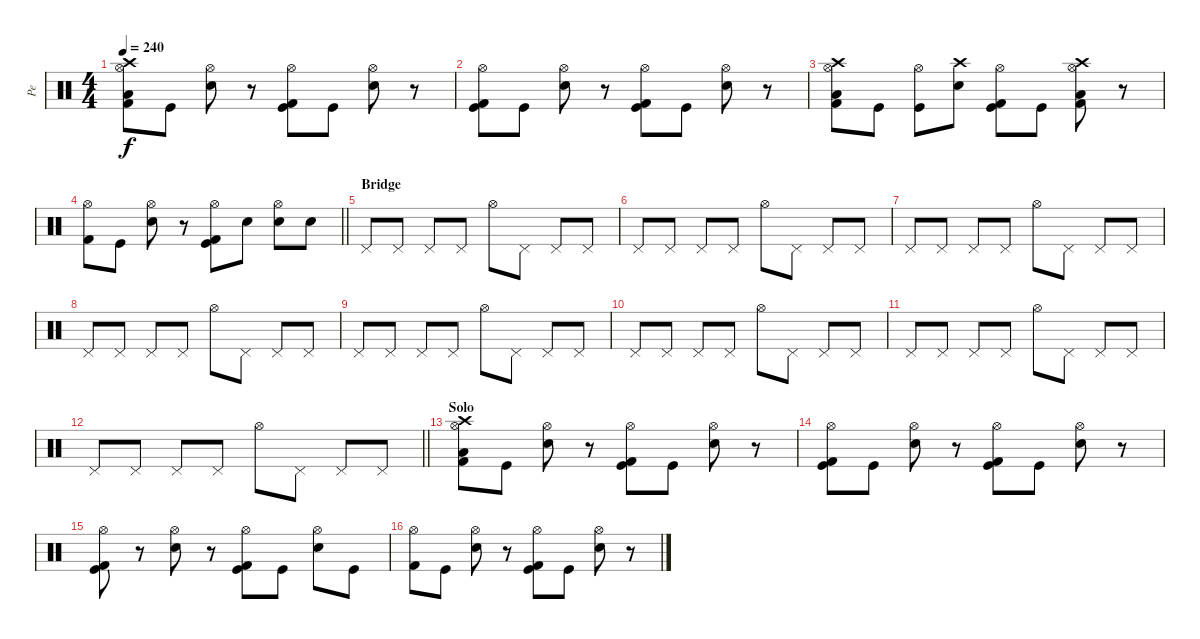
\track ("Pe" "Pe") {instrument percussion}
\staff {score}
\articulation defaults
\ts (4 4)
\tempo 240
\clef neutral
\ks c
("Low Tom (hit)" "Hi-Hat (open)" "Kick (hit) 2" "Crash high (hit)").8{dy f} "Kick (hit)".8 ("Electric Snare (hit)" "Hi-Hat (open)").8 r.8 ("Kick (hit)" "Hi-Hat (open)" "Kick (hit) 2").8 "Kick (hit)".8 ("Electric Snare (hit)" "Hi-Hat (open)").8 r.8 |
("Kick (hit)" "Hi-Hat (open)" "Kick (hit) 2").8 "Kick (hit)".8 ("Electric Snare (hit)" "Hi-Hat (open)").8 r.8 ("Kick (hit)" "Hi-Hat (open)" "Kick (hit) 2").8 "Kick (hit)".8 ("Electric Snare (hit)" "Hi-Hat (open)").8 r.8 |
("Low Tom (hit)" "Hi-Hat (open)" "Kick (hit) 2" "Crash high (hit)").8 "Kick (hit)".8 ("Kick (hit)" "Hi-Hat (open)").8 ("Crash high (hit)" "Electric Snare (hit)").8 ("Kick (hit)" "Hi-Hat (open)" "Kick (hit) 2").8 "Kick (hit)".8 ("Low Tom (hit)" "Hi-Hat (open)" "Kick (hit) 2" "Crash high (hit)").8 r.8 |
\barLineRight lightlight
("Hi-Hat (open)" "Kick (hit) 2").8 "Kick (hit)".8 ("Electric Snare (hit)" "Hi-Hat (open)").8 r.8 ("Kick (hit)" "Hi-Hat (open)" "Kick (hit) 2").8 "Electric Snare (hit)".8 ("Electric Snare (hit)" "Hi-Hat (open)").8 "Electric Snare (hit)".8 |
\section ("" "Bridge")
"Pedal Hi-Hat (hit)".8 "Pedal Hi-Hat (hit)".8 "Pedal Hi-Hat (hit)".8 "Pedal Hi-Hat (hit)".8 "Hi-Hat (open)".8 "Pedal Hi-Hat (hit)".8 "Pedal Hi-Hat (hit)".8 "Pedal Hi-Hat (hit)".8 |
"Pedal Hi-Hat (hit)".8 "Pedal Hi-Hat (hit)".8 "Pedal Hi-Hat (hit)".8 "Pedal Hi-Hat (hit)".8 "Hi-Hat (open)".8 "Pedal Hi-Hat (hit)".8 "Pedal Hi-Hat (hit)".8 "Pedal Hi-Hat (hit)".8 |
"Pedal Hi-Hat (hit)".8 "Pedal Hi-Hat (hit)".8 "Pedal Hi-Hat (hit)".8 "Pedal Hi-Hat (hit)".8 "Hi-Hat (open)".8 "Pedal Hi-Hat (hit)".8 "Pedal Hi-Hat (hit)".8 "Pedal Hi-Hat (hit)".8 |
"Pedal Hi-Hat (hit)".8 "Pedal Hi-Hat (hit)".8 "Pedal Hi-Hat (hit)".8 "Pedal Hi-Hat (hit)".8 "Hi-Hat (open)".8 "Pedal Hi-Hat (hit)".8 "Pedal Hi-Hat (hit)".8 "Pedal Hi-Hat (hit)".8 |
"Pedal Hi-Hat (hit)".8 "Pedal Hi-Hat (hit)".8 "Pedal Hi-Hat (hit)".8 "Pedal Hi-Hat (hit)".8 "Hi-Hat (open)".8 "Pedal Hi-Hat (hit)".8 "Pedal Hi-Hat (hit)".8 "Pedal Hi-Hat (hit)".8 |
"Pedal Hi-Hat (hit)".8 "Pedal Hi-Hat (hit)".8 "Pedal Hi-Hat (hit)".8 "Pedal Hi-Hat (hit)".8 "Hi-Hat (open)".8 "Pedal Hi-Hat (hit)".8 "Pedal Hi-Hat (hit)".8 "Pedal Hi-Hat (hit)".8 |
"Pedal Hi-Hat (hit)".8 "Pedal Hi-Hat (hit)".8 "Pedal Hi-Hat (hit)".8 "Pedal Hi-Hat (hit)".8 "Hi-Hat (open)".8 "Pedal Hi-Hat (hit)".8 "Pedal Hi-Hat (hit)".8 "Pedal Hi-Hat (hit)".8 |
\barLineRight lightlight "Pedal Hi-Hat (hit)".8 "Pedal Hi-Hat (hit)".8 "Pedal Hi-Hat (hit)".8 "Pedal Hi-Hat (hit)".8 "Hi-Hat (open)".8 "Pedal Hi-Hat (hit)".8 "Pedal Hi-Hat (hit)".8 "Pedal Hi-Hat (hit)".8
|
\section ("" "Solo")
("Low Tom (hit)" "Hi-Hat (open)" "Kick (hit) 2" "Crash high (hit)").8 "Kick (hit)".8 ("Electric Snare (hit)" "Hi-Hat (open)").8 r.8 ("Kick (hit)" "Hi-Hat (open)" "Kick (hit) 2").8 "Kick (hit)".8 ("Electric Snare (hit)" "Hi-Hat (open)").8 r.8 |
("Kick (hit)" "Hi-Hat (open)" "Kick (hit) 2").8 "Kick (hit)".8 ("Electric Snare (hit)" "Hi-Hat (open)").8 r.8 ("Kick (hit)" "Hi-Hat (open)" "Kick (hit) 2").8 "Kick (hit)".8 ("Electric Snare (hit)" "Hi-Hat (open)").8 r.8 |
("Kick (hit)" "Hi-Hat (open)" "Kick (hit) 2").8 r.8 ("Electric Snare (hit)" "Hi-Hat (open)").8 r.8 ("Kick (hit)" "Hi-Hat (open)" "Kick (hit) 2").8 "Kick (hit)".8 ("Electric Snare (hit)" "Hi-Hat (open)").8 "Kick (hit)".8 |
("Hi-Hat (open)" "Kick (hit) 2").8 "Kick (hit)".8 ("Electric Snare (hit)" "Hi-Hat (open)").8 r.8 ("Kick (hit)" "Hi-Hat (open)" "Kick (hit) 2").8 "Kick (hit)".8 ("Electric Snare (hit)" "Hi-Hat (open)").8 r.8
